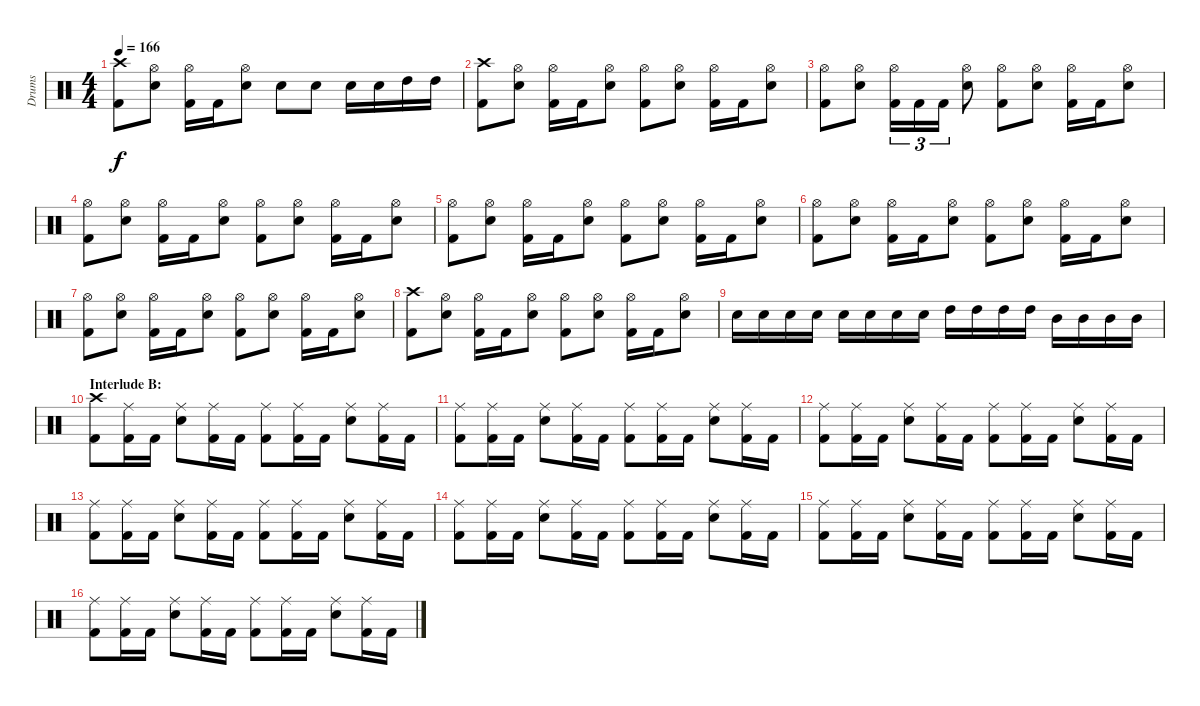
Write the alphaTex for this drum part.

\track ("Drums" "Drums") {instrument percussion}
\staff {score}
\articulation defaults
\ts (4 4)
\tempo 166
\clef neutral
\ks c
("Crash high (hit)" "Kick (hit) 2").8{dy f} ("Hi-Hat (open)" "Electric Snare (hit)").8 ("Hi-Hat (open)" "Kick (hit) 2").16 "Kick (hit) 2".16 ("Hi-Hat (open)" "Electric Snare (hit)").8 "Electric Snare (hit)".8 "Electric Snare (hit)".8 "Electric Snare (hit)".16 "Electric Snare (hit)".16 "High Tom (hit)".16 "High Tom (hit)".16 |
("Crash high (hit)" "Kick (hit) 2").8 ("Hi-Hat (open)" "Electric Snare (hit)").8 ("Hi-Hat (open)" "Kick (hit) 2").16 "Kick (hit) 2".16 ("Hi-Hat (open)" "Electric Snare (hit)").8 ("Hi-Hat (open)" "Kick (hit) 2").8 ("Hi-Hat (open)" "Electric Snare (hit)").8 ("Hi-Hat (open)" "Kick (hit) 2").16 "Kick (hit) 2".16 ("Hi-Hat (open)" "Electric Snare (hit)").8 |
("Hi-Hat (open)" "Kick (hit) 2").8 ("Hi-Hat (open)" "Electric Snare (hit)").8 ("Hi-Hat (open)" "Kick (hit) 2").16{tu (3 2)} "Kick (hit) 2".16{tu (3 2)} "Kick (hit) 2".16{tu (3 2)} ("Hi-Hat (open)" "Electric Snare (hit)").8 ("Hi-Hat (open)" "Kick (hit) 2").8 ("Hi-Hat (open)" "Electric Snare (hit)").8 ("Hi-Hat (open)" "Kick (hit) 2").16 "Kick (hit) 2".16 ("Hi-Hat (open)" "Electric Snare (hit)").8 |
("Hi-Hat (open)" "Kick (hit) 2").8 ("Hi-Hat (open)" "Electric Snare (hit)").8 ("Hi-Hat (open)" "Kick (hit) 2").16 "Kick (hit) 2".16 ("Hi-Hat (open)" "Electric Snare (hit)").8 ("Hi-Hat (open)" "Kick (hit) 2").8 ("Hi-Hat (open)" "Electric Snare (hit)").8 ("Hi-Hat (open)" "Kick (hit) 2").16 "Kick (hit) 2".16 ("Hi-Hat (open)" "Electric Snare (hit)").8 |
("Hi-Hat (open)" "Kick (hit) 2").8 ("Hi-Hat (open)" "Electric Snare (hit)").8 ("Hi-Hat (open)" "Kick (hit) 2").16 "Kick (hit) 2".16 ("Hi-Hat (open)" "Electric Snare (hit)").8 ("Hi-Hat (open)" "Kick (hit) 2").8 ("Hi-Hat (open)" "Electric Snare (hit)").8 ("Hi-Hat (open)" "Kick (hit) 2").16 "Kick (hit) 2".16 ("Hi-Hat (open)" "Electric Snare (hit)").8 |
("Hi-Hat (open)" "Kick (hit) 2").8 ("Hi-Hat (open)" "Electric Snare (hit)").8 ("Hi-Hat (open)" "Kick (hit) 2").16 "Kick (hit) 2".16 ("Hi-Hat (open)" "Electric Snare (hit)").8 ("Hi-Hat (open)" "Kick (hit) 2").8 ("Hi-Hat (open)" "Electric Snare (hit)").8 ("Hi-Hat (open)" "Kick (hit) 2").16 "Kick (hit) 2".16 ("Hi-Hat (open)" "Electric Snare (hit)").8 |
("Hi-Hat (open)" "Kick (hit) 2").8 ("Hi-Hat (open)" "Electric Snare (hit)").8 ("Hi-Hat (open)" "Kick (hit) 2").16 "Kick (hit) 2".16 ("Hi-Hat (open)" "Electric Snare (hit)").8 ("Hi-Hat (open)" "Kick (hit) 2").8 ("Hi-Hat (open)" "Electric Snare (hit)").8 ("Hi-Hat (open)" "Kick (hit) 2").16 "Kick (hit) 2".16 ("Hi-Hat (open)" "Electric Snare (hit)").8 |
("Crash high (hit)" "Kick (hit) 2").8 ("Hi-Hat (open)" "Electric Snare (hit)").8 ("Hi-Hat (open)" "Kick (hit) 2").16 "Kick (hit) 2".16 ("Hi-Hat (open)" "Electric Snare (hit)").8 ("Hi-Hat (open)" "Kick (hit) 2").8 ("Hi-Hat (open)" "Electric Snare (hit)").8 ("Hi-Hat (open)" "Kick (hit) 2").16 "Kick (hit) 2".16 ("Hi-Hat (open)" "Electric Snare (hit)").8 |
"Electric Snare (hit)".16 "Electric Snare (hit)".16 "Electric Snare (hit)".16 "Electric Snare (hit)".16 "Electric Snare (hit)".16 "Electric Snare (hit)".16 "Electric Snare (hit)".16 "Electric Snare (hit)".16 "High Tom (hit)".16 "High Tom (hit)".16 "High Tom (hit)".16 "High Tom (hit)".16 "Mid Tom (hit)".16 "Mid Tom (hit)".16 "Mid Tom (hit)".16 "Mid Tom (hit)".16 |
\section ("" "Interlude B:")
("Crash high (hit)" "Kick (hit) 2").8 ("Ride (middle)" "Kick (hit) 2").16 "Kick (hit) 2".16 ("Ride (middle)" "Electric Snare (hit)").8 ("Ride (middle)" "Kick (hit) 2").16 "Kick (hit) 2".16 ("Ride (middle)" "Kick (hit) 2").8 ("Ride (middle)" "Kick (hit) 2").16 "Kick (hit) 2".16 ("Ride (middle)" "Electric Snare (hit)").8 ("Ride (middle)" "Kick (hit) 2").16 "Kick (hit) 2".16 |
("Ride (middle)" "Kick (hit) 2").8 ("Ride (middle)" "Kick (hit) 2").16 "Kick (hit) 2".16 ("Ride (middle)" "Electric Snare (hit)").8 ("Ride (middle)" "Kick (hit) 2").16 "Kick (hit) 2".16 ("Ride (middle)" "Kick (hit) 2").8 ("Ride (middle)" "Kick (hit) 2").16 "Kick (hit) 2".16 ("Ride (middle)" "Electric Snare (hit)").8 ("Ride (middle)" "Kick (hit) 2").16 "Kick (hit) 2".16 |
("Ride (middle)" "Kick (hit) 2").8 ("Ride (middle)" "Kick (hit) 2").16 "Kick (hit) 2".16 ("Ride (middle)" "Electric Snare (hit)").8 ("Ride (middle)" "Kick (hit) 2").16 "Kick (hit) 2".16 ("Ride (middle)" "Kick (hit) 2").8 ("Ride (middle)" "Kick (hit) 2").16 "Kick (hit) 2".16 ("Ride (middle)" "Electric Snare (hit)").8 ("Ride (middle)" "Kick (hit) 2").16 "Kick (hit) 2".16 |
("Ride (middle)" "Kick (hit) 2").8 ("Ride (middle)" "Kick (hit) 2").16 "Kick (hit) 2".16 ("Ride (middle)" "Electric Snare (hit)").8 ("Ride (middle)" "Kick (hit) 2").16 "Kick (hit) 2".16 ("Ride (middle)" "Kick (hit) 2").8 ("Ride (middle)" "Kick (hit) 2").16 "Kick (hit) 2".16 ("Ride (middle)" "Electric Snare (hit)").8 ("Ride (middle)" "Kick (hit) 2").16 "Kick (hit) 2".16 |
("Ride (middle)" "Kick (hit) 2").8 ("Ride (middle)" "Kick (hit) 2").16 "Kick (hit) 2".16 ("Ride (middle)" "Electric Snare (hit)").8 ("Ride (middle)" "Kick (hit) 2").16 "Kick (hit) 2".16 ("Ride (middle)" "Kick (hit) 2").8 ("Ride (middle)" "Kick (hit) 2").16 "Kick (hit) 2".16 ("Ride (middle)" "Electric Snare (hit)").8 ("Ride (middle)" "Kick (hit) 2").16 "Kick (hit) 2".16 |
("Ride (middle)" "Kick (hit) 2").8 ("Ride (middle)" "Kick (hit) 2").16 "Kick (hit) 2".16 ("Ride (middle)" "Electric Snare (hit)").8 ("Ride (middle)" "Kick (hit) 2").16 "Kick (hit) 2".16 ("Ride (middle)" "Kick (hit) 2").8 ("Ride (middle)" "Kick (hit) 2").16 "Kick (hit) 2".16 ("Ride (middle)" "Electric Snare (hit)").8 ("Ride (middle)" "Kick (hit) 2").16 "Kick (hit) 2".16 |
("Ride (middle)" "Kick (hit) 2").8 ("Ride (middle)" "Kick (hit) 2").16 "Kick (hit) 2".16 ("Ride (middle)" "Electric Snare (hit)").8 ("Ride (middle)" "Kick (hit) 2").16 "Kick (hit) 2".16 ("Ride (middle)" "Kick (hit) 2").8 ("Ride (middle)" "Kick (hit) 2").16 "Kick (hit) 2".16 ("Ride (middle)" "Electric Snare (hit)").8 ("Ride (middle)" "Kick (hit) 2").16 "Kick (hit) 2".16
